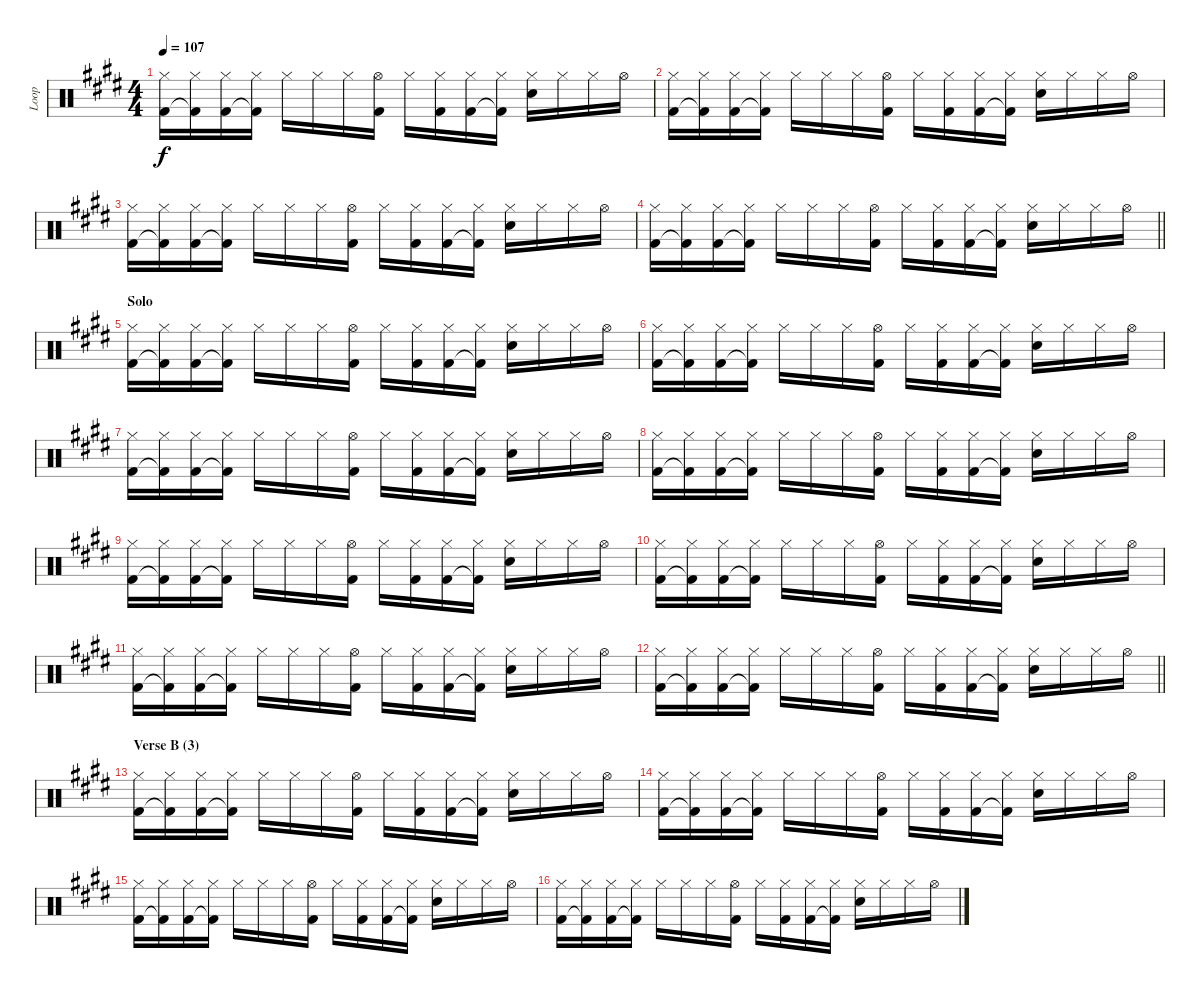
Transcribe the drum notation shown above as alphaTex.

\track ("Loop" "Loop") {instrument percussion}
\staff {score}
\articulation defaults
\ts (4 4)
\tempo 107
\clef neutral
\ks e
("Hi-Hat (closed)" "Kick (hit) 2").16{dy f} ("Hi-Hat (closed)" "Kick (hit) 2"{t}).16 ("Hi-Hat (closed)" "Kick (hit) 2").16 ("Hi-Hat (closed)" "Kick (hit) 2"{t}).16 "Hi-Hat (closed)".16 "Hi-Hat (closed)".16 "Hi-Hat (closed)".16 ("Hi-Hat (open)" "Kick (hit) 2").16 "Hi-Hat (closed)".16 ("Hi-Hat (closed)" "Kick (hit) 2").16 ("Hi-Hat (closed)" "Kick (hit) 2").16 ("Hi-Hat (closed)" "Kick (hit) 2"{t}).16 ("Hi-Hat (closed)" "Electric Snare (hit)").16 "Hi-Hat (closed)".16 "Hi-Hat (closed)".16 "Hi-Hat (open)".16 |
("Hi-Hat (closed)" "Kick (hit) 2").16 ("Hi-Hat (closed)" "Kick (hit) 2"{t}).16 ("Hi-Hat (closed)" "Kick (hit) 2").16 ("Hi-Hat (closed)" "Kick (hit) 2"{t}).16 "Hi-Hat (closed)".16 "Hi-Hat (closed)".16 "Hi-Hat (closed)".16 ("Hi-Hat (open)" "Kick (hit) 2").16 "Hi-Hat (closed)".16 ("Hi-Hat (closed)" "Kick (hit) 2").16 ("Hi-Hat (closed)" "Kick (hit) 2").16 ("Hi-Hat (closed)" "Kick (hit) 2"{t}).16 ("Hi-Hat (closed)" "Electric Snare (hit)").16 "Hi-Hat (closed)".16 "Hi-Hat (closed)".16 "Hi-Hat (open)".16 |
("Hi-Hat (closed)" "Kick (hit) 2").16 ("Hi-Hat (closed)" "Kick (hit) 2"{t}).16 ("Hi-Hat (closed)" "Kick (hit) 2").16 ("Hi-Hat (closed)" "Kick (hit) 2"{t}).16 "Hi-Hat (closed)".16 "Hi-Hat (closed)".16 "Hi-Hat (closed)".16 ("Hi-Hat (open)" "Kick (hit) 2").16 "Hi-Hat (closed)".16 ("Hi-Hat (closed)" "Kick (hit) 2").16 ("Hi-Hat (closed)" "Kick (hit) 2").16 ("Hi-Hat (closed)" "Kick (hit) 2"{t}).16 ("Hi-Hat (closed)" "Electric Snare (hit)").16 "Hi-Hat (closed)".16 "Hi-Hat (closed)".16 "Hi-Hat (open)".16 |
\barLineRight lightlight
("Hi-Hat (closed)" "Kick (hit) 2").16 ("Hi-Hat (closed)" "Kick (hit) 2"{t}).16 ("Hi-Hat (closed)" "Kick (hit) 2").16 ("Hi-Hat (closed)" "Kick (hit) 2"{t}).16 "Hi-Hat (closed)".16 "Hi-Hat (closed)".16 "Hi-Hat (closed)".16 ("Hi-Hat (open)" "Kick (hit) 2").16 "Hi-Hat (closed)".16 ("Hi-Hat (closed)" "Kick (hit) 2").16 ("Hi-Hat (closed)" "Kick (hit) 2").16 ("Hi-Hat (closed)" "Kick (hit) 2"{t}).16 ("Hi-Hat (closed)" "Electric Snare (hit)").16 "Hi-Hat (closed)".16 "Hi-Hat (closed)".16 "Hi-Hat (open)".16 |
\section ("" "Solo")
("Hi-Hat (closed)" "Kick (hit) 2").16 ("Hi-Hat (closed)" "Kick (hit) 2"{t}).16 ("Hi-Hat (closed)" "Kick (hit) 2").16 ("Hi-Hat (closed)" "Kick (hit) 2"{t}).16 "Hi-Hat (closed)".16 "Hi-Hat (closed)".16 "Hi-Hat (closed)".16 ("Hi-Hat (open)" "Kick (hit) 2").16 "Hi-Hat (closed)".16 ("Hi-Hat (closed)" "Kick (hit) 2").16 ("Hi-Hat (closed)" "Kick (hit) 2").16 ("Hi-Hat (closed)" "Kick (hit) 2"{t}).16 ("Hi-Hat (closed)" "Electric Snare (hit)").16 "Hi-Hat (closed)".16 "Hi-Hat (closed)".16 "Hi-Hat (open)".16 |
("Hi-Hat (closed)" "Kick (hit) 2").16 ("Hi-Hat (closed)" "Kick (hit) 2"{t}).16 ("Hi-Hat (closed)" "Kick (hit) 2").16 ("Hi-Hat (closed)" "Kick (hit) 2"{t}).16 "Hi-Hat (closed)".16 "Hi-Hat (closed)".16 "Hi-Hat (closed)".16 ("Hi-Hat (open)" "Kick (hit) 2").16 "Hi-Hat (closed)".16 ("Hi-Hat (closed)" "Kick (hit) 2").16 ("Hi-Hat (closed)" "Kick (hit) 2").16 ("Hi-Hat (closed)" "Kick (hit) 2"{t}).16 ("Hi-Hat (closed)" "Electric Snare (hit)").16 "Hi-Hat (closed)".16 "Hi-Hat (closed)".16 "Hi-Hat (open)".16 |
("Hi-Hat (closed)" "Kick (hit) 2").16 ("Hi-Hat (closed)" "Kick (hit) 2"{t}).16 ("Hi-Hat (closed)" "Kick (hit) 2").16 ("Hi-Hat (closed)" "Kick (hit) 2"{t}).16 "Hi-Hat (closed)".16 "Hi-Hat (closed)".16 "Hi-Hat (closed)".16 ("Hi-Hat (open)" "Kick (hit) 2").16 "Hi-Hat (closed)".16 ("Hi-Hat (closed)" "Kick (hit) 2").16 ("Hi-Hat (closed)" "Kick (hit) 2").16 ("Hi-Hat (closed)" "Kick (hit) 2"{t}).16 ("Hi-Hat (closed)" "Electric Snare (hit)").16 "Hi-Hat (closed)".16 "Hi-Hat (closed)".16 "Hi-Hat (open)".16 |
("Hi-Hat (closed)" "Kick (hit) 2").16 ("Hi-Hat (closed)" "Kick (hit) 2"{t}).16 ("Hi-Hat (closed)" "Kick (hit) 2").16 ("Hi-Hat (closed)" "Kick (hit) 2"{t}).16 "Hi-Hat (closed)".16 "Hi-Hat (closed)".16 "Hi-Hat (closed)".16 ("Hi-Hat (open)" "Kick (hit) 2").16 "Hi-Hat (closed)".16 ("Hi-Hat (closed)" "Kick (hit) 2").16 ("Hi-Hat (closed)" "Kick (hit) 2").16 ("Hi-Hat (closed)" "Kick (hit) 2"{t}).16 ("Hi-Hat (closed)" "Electric Snare (hit)").16 "Hi-Hat (closed)".16 "Hi-Hat (closed)".16 "Hi-Hat (open)".16 |
("Hi-Hat (closed)" "Kick (hit) 2").16 ("Hi-Hat (closed)" "Kick (hit) 2"{t}).16 ("Hi-Hat (closed)" "Kick (hit) 2").16 ("Hi-Hat (closed)" "Kick (hit) 2"{t}).16 "Hi-Hat (closed)".16 "Hi-Hat (closed)".16 "Hi-Hat (closed)".16 ("Hi-Hat (open)" "Kick (hit) 2").16 "Hi-Hat (closed)".16 ("Hi-Hat (closed)" "Kick (hit) 2").16 ("Hi-Hat (closed)" "Kick (hit) 2").16 ("Hi-Hat (closed)" "Kick (hit) 2"{t}).16 ("Hi-Hat (closed)" "Electric Snare (hit)").16 "Hi-Hat (closed)".16 "Hi-Hat (closed)".16 "Hi-Hat (open)".16 |
("Hi-Hat (closed)" "Kick (hit) 2").16 ("Hi-Hat (closed)" "Kick (hit) 2"{t}).16 ("Hi-Hat (closed)" "Kick (hit) 2").16 ("Hi-Hat (closed)" "Kick (hit) 2"{t}).16 "Hi-Hat (closed)".16 "Hi-Hat (closed)".16 "Hi-Hat (closed)".16 ("Hi-Hat (open)" "Kick (hit) 2").16 "Hi-Hat (closed)".16 ("Hi-Hat (closed)" "Kick (hit) 2").16 ("Hi-Hat (closed)" "Kick (hit) 2").16 ("Hi-Hat (closed)" "Kick (hit) 2"{t}).16 ("Hi-Hat (closed)" "Electric Snare (hit)").16 "Hi-Hat (closed)".16 "Hi-Hat (closed)".16 "Hi-Hat (open)".16 |
("Hi-Hat (closed)" "Kick (hit) 2").16 ("Hi-Hat (closed)" "Kick (hit) 2"{t}).16 ("Hi-Hat (closed)" "Kick (hit) 2").16 ("Hi-Hat (closed)" "Kick (hit) 2"{t}).16 "Hi-Hat (closed)".16 "Hi-Hat (closed)".16 "Hi-Hat (closed)".16 ("Hi-Hat (open)" "Kick (hit) 2").16 "Hi-Hat (closed)".16 ("Hi-Hat (closed)" "Kick (hit) 2").16 ("Hi-Hat (closed)" "Kick (hit) 2").16 ("Hi-Hat (closed)" "Kick (hit) 2"{t}).16 ("Hi-Hat (closed)" "Electric Snare (hit)").16 "Hi-Hat (closed)".16 "Hi-Hat (closed)".16 "Hi-Hat (open)".16 |
\barLineRight lightlight
("Hi-Hat (closed)" "Kick (hit) 2").16 ("Hi-Hat (closed)" "Kick (hit) 2"{t}).16 ("Hi-Hat (closed)" "Kick (hit) 2").16 ("Hi-Hat (closed)" "Kick (hit) 2"{t}).16 "Hi-Hat (closed)".16 "Hi-Hat (closed)".16 "Hi-Hat (closed)".16 ("Hi-Hat (open)" "Kick (hit) 2").16 "Hi-Hat (closed)".16 ("Hi-Hat (closed)" "Kick (hit) 2").16 ("Hi-Hat (closed)" "Kick (hit) 2").16 ("Hi-Hat (closed)" "Kick (hit) 2"{t}).16 ("Hi-Hat (closed)" "Electric Snare (hit)").16 "Hi-Hat (closed)".16 "Hi-Hat (closed)".16 "Hi-Hat (open)".16 |
\section ("" "Verse B (3)")
("Hi-Hat (closed)" "Kick (hit) 2").16 ("Hi-Hat (closed)" "Kick (hit) 2"{t}).16 ("Hi-Hat (closed)" "Kick (hit) 2").16 ("Hi-Hat (closed)" "Kick (hit) 2"{t}).16 "Hi-Hat (closed)".16 "Hi-Hat (closed)".16 "Hi-Hat (closed)".16 ("Hi-Hat (open)" "Kick (hit) 2").16 "Hi-Hat (closed)".16 ("Hi-Hat (closed)" "Kick (hit) 2").16 ("Hi-Hat (closed)" "Kick (hit) 2").16 ("Hi-Hat (closed)" "Kick (hit) 2"{t}).16 ("Hi-Hat (closed)" "Electric Snare (hit)").16 "Hi-Hat (closed)".16 "Hi-Hat (closed)".16 "Hi-Hat (open)".16 |
("Hi-Hat (closed)" "Kick (hit) 2").16 ("Hi-Hat (closed)" "Kick (hit) 2"{t}).16 ("Hi-Hat (closed)" "Kick (hit) 2").16 ("Hi-Hat (closed)" "Kick (hit) 2"{t}).16 "Hi-Hat (closed)".16 "Hi-Hat (closed)".16 "Hi-Hat (closed)".16 ("Hi-Hat (open)" "Kick (hit) 2").16 "Hi-Hat (closed)".16 ("Hi-Hat (closed)" "Kick (hit) 2").16 ("Hi-Hat (closed)" "Kick (hit) 2").16 ("Hi-Hat (closed)" "Kick (hit) 2"{t}).16 ("Hi-Hat (closed)" "Electric Snare (hit)").16 "Hi-Hat (closed)".16 "Hi-Hat (closed)".16 "Hi-Hat (open)".16 |
("Hi-Hat (closed)" "Kick (hit) 2").16 ("Hi-Hat (closed)" "Kick (hit) 2"{t}).16 ("Hi-Hat (closed)" "Kick (hit) 2").16 ("Hi-Hat (closed)" "Kick (hit) 2"{t}).16 "Hi-Hat (closed)".16 "Hi-Hat (closed)".16 "Hi-Hat (closed)".16 ("Hi-Hat (open)" "Kick (hit) 2").16 "Hi-Hat (closed)".16 ("Hi-Hat (closed)" "Kick (hit) 2").16 ("Hi-Hat (closed)" "Kick (hit) 2").16 ("Hi-Hat (closed)" "Kick (hit) 2"{t}).16 ("Hi-Hat (closed)" "Electric Snare (hit)").16 "Hi-Hat (closed)".16 "Hi-Hat (closed)".16 "Hi-Hat (open)".16 |
("Hi-Hat (closed)" "Kick (hit) 2").16 ("Hi-Hat (closed)" "Kick (hit) 2"{t}).16 ("Hi-Hat (closed)" "Kick (hit) 2").16 ("Hi-Hat (closed)" "Kick (hit) 2"{t}).16 "Hi-Hat (closed)".16 "Hi-Hat (closed)".16 "Hi-Hat (closed)".16 ("Hi-Hat (open)" "Kick (hit) 2").16 "Hi-Hat (closed)".16 ("Hi-Hat (closed)" "Kick (hit) 2").16 ("Hi-Hat (closed)" "Kick (hit) 2").16 ("Hi-Hat (closed)" "Kick (hit) 2"{t}).16 ("Hi-Hat (closed)" "Electric Snare (hit)").16 "Hi-Hat (closed)".16 "Hi-Hat (closed)".16 "Hi-Hat (open)".16
